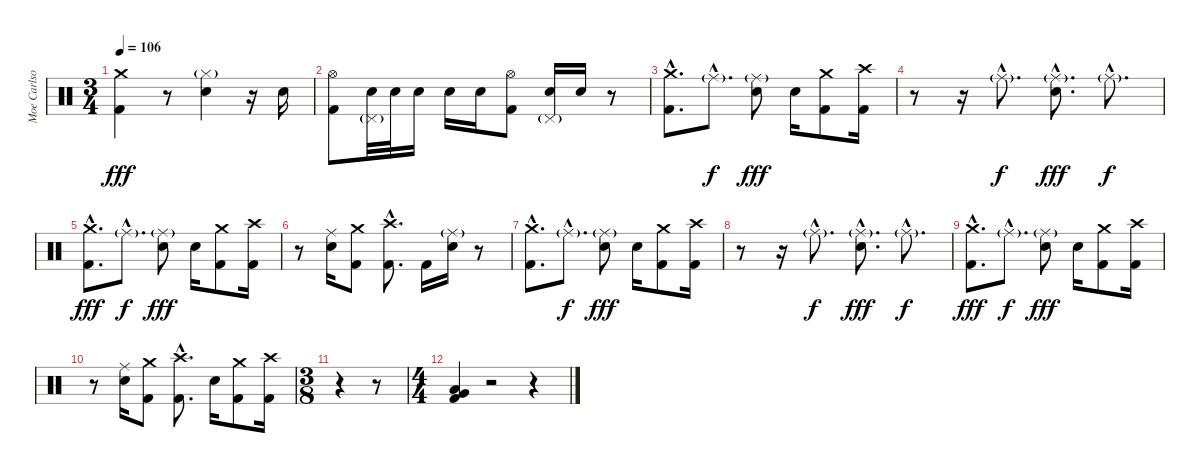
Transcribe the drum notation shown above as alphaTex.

\track ("Moe Carlson" "Moe Carlso") {instrument percussion}
\staff {score}
\articulation defaults
\ts (3 4)
\tempo 106
\clef neutral
\ks c
("Crash medium (hit)" "Kick (hit) 2").4{dy fff} r.8 ("Hi-Hat (closed)"{g} "Electric Snare (hit)").4 r.16 "Electric Snare (hit)".16 |
("Hi-Hat (open)" "Kick (hit) 2").8 ("Electric Snare (hit)" "Pedal Hi-Hat (hit)"{g}).32 "Electric Snare (hit)".32 "Electric Snare (hit)".16 "Electric Snare (hit)".16 "Electric Snare (hit)".16 ("Hi-Hat (open)" "Kick (hit) 2").8 ("Electric Snare (hit)" "Pedal Hi-Hat (hit)"{g}).16 "Electric Snare (hit)".16 r.8 |
("Crash medium (hit)"{hac} "Kick (hit) 2"{hac}).8{d} "Ride (middle)"{g hac}.8{d dy f} ("Ride (middle)"{g} "Electric Snare (hit)").8{dy fff} "Electric Snare (hit)".16 ("Crash medium (hit)" "Kick (hit) 2").8 ("Crash high (hit)" "Kick (hit) 2").16 |
r.8 r.16 "Ride (middle)"{g hac}.8{d dy f} ("Ride (middle)"{g hac} "Electric Snare (hit)"{hac}).8{d dy fff} "Ride (middle)"{g hac}.8{d dy f} |
("Crash medium (hit)"{hac} "Kick (hit) 2"{hac}).8{d dy fff} "Ride (middle)"{g hac}.8{d dy f} ("Ride (middle)"{g} "Electric Snare (hit)").8{dy fff} "Electric Snare (hit)".16 ("Crash medium (hit)" "Kick (hit) 2").8 ("Crash high (hit)" "Kick (hit) 2").16 |
r.8 ("Ride (middle)" "Electric Snare (hit)").16 ("Crash medium (hit)" "Kick (hit) 2").8 ("Crash high (hit)"{hac} "Kick (hit) 2"{hac}).8{d} "Kick (hit) 2".16 ("Ride (middle)"{g} "Electric Snare (hit)").16 r.8 |
("Crash medium (hit)"{hac} "Kick (hit) 2"{hac}).8{d} "Ride (middle)"{g hac}.8{d dy f} ("Ride (middle)"{g} "Electric Snare (hit)").8{dy fff} "Electric Snare (hit)".16 ("Crash medium (hit)" "Kick (hit) 2").8 ("Crash high (hit)" "Kick (hit) 2").16 |
r.8 r.16 "Ride (middle)"{g hac}.8{d dy f} ("Ride (middle)"{g hac} "Electric Snare (hit)"{hac}).8{d dy fff} "Ride (middle)"{g hac}.8{d dy f} |
("Crash medium (hit)"{hac} "Kick (hit) 2"{hac}).8{d dy fff} "Ride (middle)"{g hac}.8{d dy f} ("Ride (middle)"{g} "Electric Snare (hit)").8{dy fff} "Electric Snare (hit)".16 ("Crash medium (hit)" "Kick (hit) 2").8 ("Crash high (hit)" "Kick (hit) 2").16 |
r.8 ("Ride (middle)" "Electric Snare (hit)").16 ("Crash medium (hit)" "Kick (hit) 2").8 ("Crash high (hit)"{hac} "Kick (hit) 2"{hac}).8{d} "Electric Snare (hit)".16 ("Crash medium (hit)" "Kick (hit) 2").8 ("Crash high (hit)" "Kick (hit) 2").16 |
\ts (3 8)
r.4 r.8 |
\ts (4 4)
("Very Low Tom (hit)" "Low Floor Tom (hit)" "Kick (hit) 2").4 r.2 r.4
